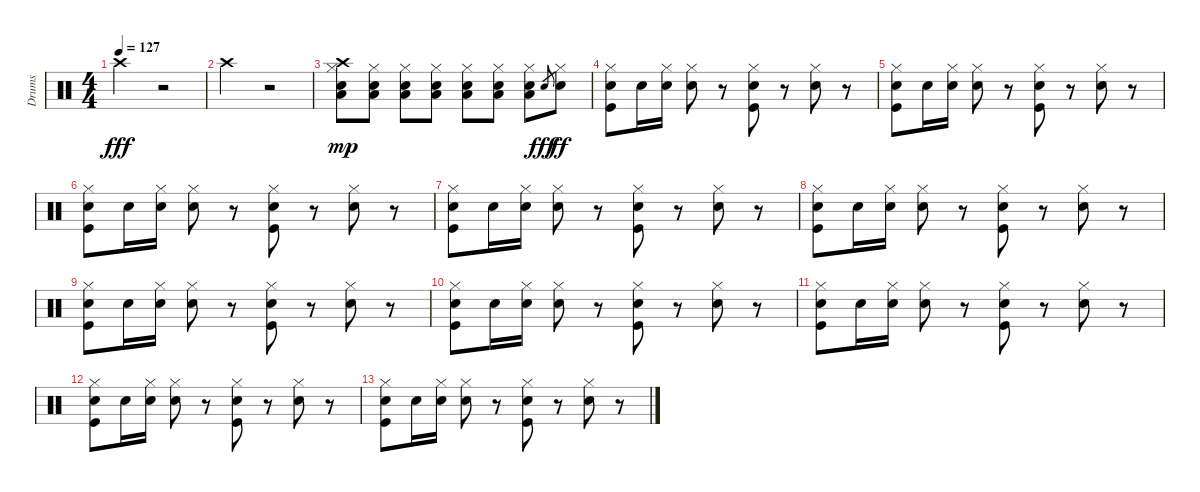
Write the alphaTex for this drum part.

\track ("Drums" "Drums") {instrument percussion}
\staff {score}
\articulation defaults
\ts (4 4)
\tempo 127
\clef neutral
\ks c "Crash high (hit)".2{dy fff}
r.2 |
"Crash high (hit)".2 r.2 |
("Crash high (hit)" "Hi-Hat (closed)" "Electric Snare (hit)" "Low Floor Tom (hit)").8{dy mp} ("Hi-Hat (closed)" "Electric Snare (hit)" "Low Floor Tom (hit)").8 ("Hi-Hat (closed)" "Electric Snare (hit)" "Low Floor Tom (hit)").8 ("Hi-Hat (closed)" "Electric Snare (hit)" "Low Floor Tom (hit)").8 ("Hi-Hat (closed)" "Electric Snare (hit)" "Low Floor Tom (hit)").8 ("Hi-Hat (closed)" "Electric Snare (hit)" "Low Floor Tom (hit)").8 ("Hi-Hat (closed)" "Electric Snare (hit)" "Low Floor Tom (hit)").8 "Electric Snare (hit)".8{gr dy fff} ("Hi-Hat (closed)" "Electric Snare (hit)").8{dy ff} |
("Hi-Hat (closed)" "Electric Snare (hit)" "Kick (hit)").8 "Electric Snare (hit)".16 ("Hi-Hat (closed)" "Electric Snare (hit)").16 ("Hi-Hat (closed)" "Electric Snare (hit)").8 r.8 ("Hi-Hat (closed)" "Electric Snare (hit)" "Kick (hit)").8 r.8 ("Hi-Hat (closed)" "Electric Snare (hit)").8 r.8 |
("Hi-Hat (closed)" "Electric Snare (hit)" "Kick (hit)").8 "Electric Snare (hit)".16 ("Hi-Hat (closed)" "Electric Snare (hit)").16 ("Hi-Hat (closed)" "Electric Snare (hit)").8 r.8 ("Hi-Hat (closed)" "Electric Snare (hit)" "Kick (hit)").8 r.8 ("Hi-Hat (closed)" "Electric Snare (hit)").8 r.8 |
("Hi-Hat (closed)" "Electric Snare (hit)" "Kick (hit)").8 "Electric Snare (hit)".16 ("Hi-Hat (closed)" "Electric Snare (hit)").16 ("Hi-Hat (closed)" "Electric Snare (hit)").8 r.8 ("Hi-Hat (closed)" "Electric Snare (hit)" "Kick (hit)").8 r.8 ("Hi-Hat (closed)" "Electric Snare (hit)").8 r.8 |
("Hi-Hat (closed)" "Electric Snare (hit)" "Kick (hit)").8 "Electric Snare (hit)".16 ("Hi-Hat (closed)" "Electric Snare (hit)").16 ("Hi-Hat (closed)" "Electric Snare (hit)").8 r.8 ("Hi-Hat (closed)" "Electric Snare (hit)" "Kick (hit)").8 r.8 ("Hi-Hat (closed)" "Electric Snare (hit)").8 r.8 |
("Hi-Hat (closed)" "Electric Snare (hit)" "Kick (hit)").8 "Electric Snare (hit)".16 ("Hi-Hat (closed)" "Electric Snare (hit)").16 ("Hi-Hat (closed)" "Electric Snare (hit)").8 r.8 ("Hi-Hat (closed)" "Electric Snare (hit)" "Kick (hit)").8 r.8 ("Hi-Hat (closed)" "Electric Snare (hit)").8 r.8 |
("Hi-Hat (closed)" "Electric Snare (hit)" "Kick (hit)").8 "Electric Snare (hit)".16 ("Hi-Hat (closed)" "Electric Snare (hit)").16 ("Hi-Hat (closed)" "Electric Snare (hit)").8 r.8 ("Hi-Hat (closed)" "Electric Snare (hit)" "Kick (hit)").8 r.8 ("Hi-Hat (closed)" "Electric Snare (hit)").8 r.8 |
("Hi-Hat (closed)" "Electric Snare (hit)" "Kick (hit)").8 "Electric Snare (hit)".16 ("Hi-Hat (closed)" "Electric Snare (hit)").16 ("Hi-Hat (closed)" "Electric Snare (hit)").8 r.8 ("Hi-Hat (closed)" "Electric Snare (hit)" "Kick (hit)").8 r.8 ("Hi-Hat (closed)" "Electric Snare (hit)").8 r.8 |
("Hi-Hat (closed)" "Electric Snare (hit)" "Kick (hit)").8 "Electric Snare (hit)".16 ("Hi-Hat (closed)" "Electric Snare (hit)").16 ("Hi-Hat (closed)" "Electric Snare (hit)").8 r.8 ("Hi-Hat (closed)" "Electric Snare (hit)" "Kick (hit)").8 r.8 ("Hi-Hat (closed)" "Electric Snare (hit)").8 r.8 |
("Hi-Hat (closed)" "Electric Snare (hit)" "Kick (hit)").8 "Electric Snare (hit)".16 ("Hi-Hat (closed)" "Electric Snare (hit)").16 ("Hi-Hat (closed)" "Electric Snare (hit)").8 r.8 ("Hi-Hat (closed)" "Electric Snare (hit)" "Kick (hit)").8 r.8 ("Hi-Hat (closed)" "Electric Snare (hit)").8 r.8 |
("Hi-Hat (closed)" "Electric Snare (hit)" "Kick (hit)").8 "Electric Snare (hit)".16 ("Hi-Hat (closed)" "Electric Snare (hit)").16 ("Hi-Hat (closed)" "Electric Snare (hit)").8 r.8 ("Hi-Hat (closed)" "Electric Snare (hit)" "Kick (hit)").8 r.8 ("Hi-Hat (closed)" "Electric Snare (hit)").8 r.8
